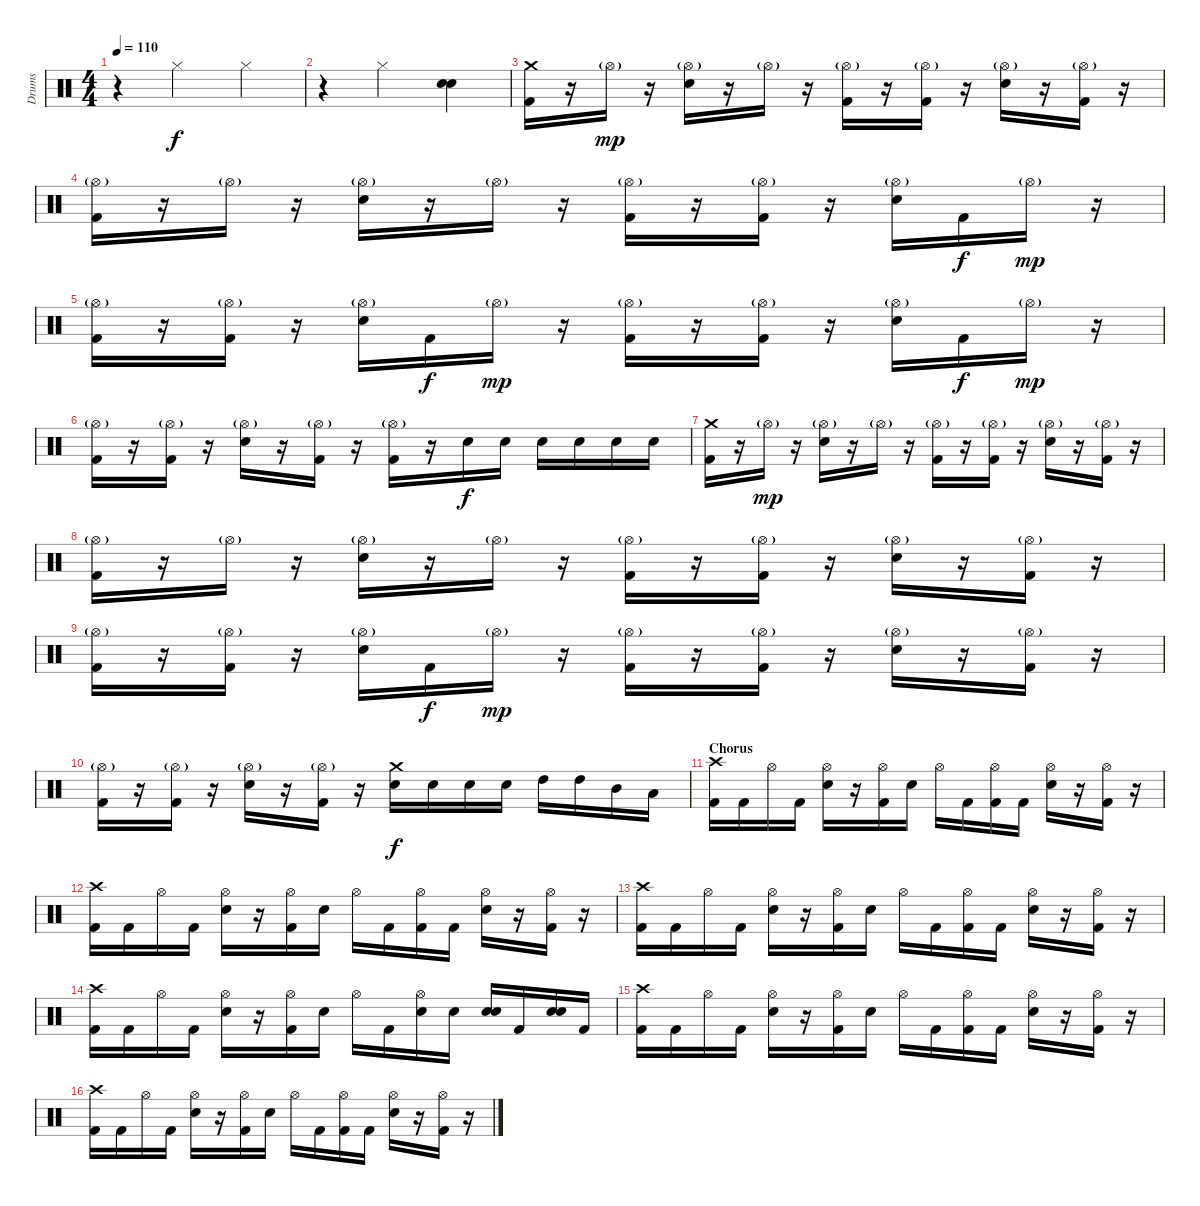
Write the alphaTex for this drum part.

\track ("Drums" "Drums") {instrument percussion}
\staff {score}
\articulation defaults
\ts (4 4)
\tempo 110
\clef neutral
\ks c
r.4{dy f} "Hi-Hat (closed)".2 "Hi-Hat (closed)".4 |
r.4 "Hi-Hat (closed)".2 ("Electric Snare (hit)" "Electric Snare (hit)").4{bd 120} |
("Crash medium (hit)" "Kick (hit) 2").16 r.16 "Hi-Hat (open)"{g}.16{dy mp} r.16 ("Hi-Hat (open)"{g} "Electric Snare (hit)").16 r.16 "Hi-Hat (open)"{g}.16 r.16 ("Hi-Hat (open)"{g} "Kick (hit) 2").16 r.16 ("Hi-Hat (open)"{g} "Kick (hit) 2").16 r.16 ("Hi-Hat (open)"{g} "Electric Snare (hit)").16 r.16 ("Hi-Hat (open)"{g} "Kick (hit) 2").16 r.16 |
("Hi-Hat (open)"{g} "Kick (hit) 2").16 r.16 "Hi-Hat (open)"{g}.16 r.16 ("Hi-Hat (open)"{g} "Electric Snare (hit)").16 r.16 "Hi-Hat (open)"{g}.16 r.16 ("Hi-Hat (open)"{g} "Kick (hit) 2").16 r.16 ("Hi-Hat (open)"{g} "Kick (hit) 2").16 r.16 ("Hi-Hat (open)"{g} "Electric Snare (hit)").16 "Kick (hit) 2".16{dy f} "Hi-Hat (open)"{g}.16{dy mp} r.16 |
("Hi-Hat (open)"{g} "Kick (hit) 2").16 r.16 ("Hi-Hat (open)"{g} "Kick (hit) 2").16 r.16 ("Hi-Hat (open)"{g} "Electric Snare (hit)").16 "Kick (hit) 2".16{dy f} "Hi-Hat (open)"{g}.16{dy mp} r.16 ("Hi-Hat (open)"{g} "Kick (hit) 2").16 r.16 ("Hi-Hat (open)"{g} "Kick (hit) 2").16 r.16 ("Hi-Hat (open)"{g} "Electric Snare (hit)").16 "Kick (hit) 2".16{dy f} "Hi-Hat (open)"{g}.16{dy mp} r.16 |
("Hi-Hat (open)"{g} "Kick (hit) 2").16 r.16 ("Hi-Hat (open)"{g} "Kick (hit) 2").16 r.16 ("Hi-Hat (open)"{g} "Electric Snare (hit)").16 r.16 ("Hi-Hat (open)"{g} "Kick (hit) 2").16 r.16 ("Hi-Hat (open)"{g} "Kick (hit) 2").16 r.16 "Electric Snare (hit)".16{dy f} "Electric Snare (hit)".16 "Electric Snare (hit)".16 "Electric Snare (hit)".16 "Electric Snare (hit)".16 "Electric Snare (hit)".16 |
("Crash medium (hit)" "Kick (hit) 2").16 r.16 "Hi-Hat (open)"{g}.16{dy mp} r.16 ("Hi-Hat (open)"{g} "Electric Snare (hit)").16 r.16 "Hi-Hat (open)"{g}.16 r.16 ("Hi-Hat (open)"{g} "Kick (hit) 2").16 r.16 ("Hi-Hat (open)"{g} "Kick (hit) 2").16 r.16 ("Hi-Hat (open)"{g} "Electric Snare (hit)").16 r.16 ("Hi-Hat (open)"{g} "Kick (hit) 2").16 r.16 |
("Hi-Hat (open)"{g} "Kick (hit) 2").16 r.16 "Hi-Hat (open)"{g}.16 r.16 ("Hi-Hat (open)"{g} "Electric Snare (hit)").16 r.16 "Hi-Hat (open)"{g}.16 r.16 ("Hi-Hat (open)"{g} "Kick (hit) 2").16 r.16 ("Hi-Hat (open)"{g} "Kick (hit) 2").16 r.16 ("Hi-Hat (open)"{g} "Electric Snare (hit)").16 r.16 ("Hi-Hat (open)"{g} "Kick (hit) 2").16 r.16 |
("Hi-Hat (open)"{g} "Kick (hit) 2").16 r.16 ("Hi-Hat (open)"{g} "Kick (hit) 2").16 r.16 ("Hi-Hat (open)"{g} "Electric Snare (hit)").16 "Kick (hit) 2".16{dy f} "Hi-Hat (open)"{g}.16{dy mp} r.16 ("Hi-Hat (open)"{g} "Kick (hit) 2").16 r.16 ("Hi-Hat (open)"{g} "Kick (hit) 2").16 r.16 ("Hi-Hat (open)"{g} "Electric Snare (hit)").16 r.16 ("Hi-Hat (open)"{g} "Kick (hit) 2").16 r.16 |
("Hi-Hat (open)"{g} "Kick (hit) 2").16 r.16 ("Hi-Hat (open)"{g} "Kick (hit) 2").16 r.16 ("Hi-Hat (open)"{g} "Electric Snare (hit)").16 r.16 ("Hi-Hat (open)"{g} "Kick (hit) 2").16 r.16 ("Crash medium (hit)" "Electric Snare (hit)").16{dy f} "Electric Snare (hit)".16 "Electric Snare (hit)".16 "Electric Snare (hit)".16 "High Tom (hit)".16 "High Tom (hit)".16 "Mid Tom (hit)".16 "Low Tom (hit)".16 |
\section ("" "Chorus")
("Crash high (hit)" "Kick (hit) 2").16 "Kick (hit) 2".16 "Hi-Hat (open)".16 "Kick (hit) 2".16 ("Hi-Hat (open)" "Electric Snare (hit)").16 r.16 ("Hi-Hat (open)" "Kick (hit) 2").16 "Electric Snare (hit)".16 "Hi-Hat (open)".16 "Kick (hit) 2".16 ("Hi-Hat (open)" "Kick (hit) 2").16 "Kick (hit) 2".16 ("Hi-Hat (open)" "Electric Snare (hit)").16 r.16 ("Hi-Hat (open)" "Kick (hit) 2").16 r.16 |
("Crash high (hit)" "Kick (hit) 2").16 "Kick (hit) 2".16 "Hi-Hat (open)".16 "Kick (hit) 2".16 ("Hi-Hat (open)" "Electric Snare (hit)").16 r.16 ("Hi-Hat (open)" "Kick (hit) 2").16 "Electric Snare (hit)".16 "Hi-Hat (open)".16 "Kick (hit) 2".16 ("Hi-Hat (open)" "Kick (hit) 2").16 "Kick (hit) 2".16 ("Hi-Hat (open)" "Electric Snare (hit)").16 r.16 ("Hi-Hat (open)" "Kick (hit) 2").16 r.16 |
("Crash high (hit)" "Kick (hit) 2").16 "Kick (hit) 2".16 "Hi-Hat (open)".16 "Kick (hit) 2".16 ("Hi-Hat (open)" "Electric Snare (hit)").16 r.16 ("Hi-Hat (open)" "Kick (hit) 2").16 "Electric Snare (hit)".16 "Hi-Hat (open)".16 "Kick (hit) 2".16 ("Hi-Hat (open)" "Kick (hit) 2").16 "Kick (hit) 2".16 ("Hi-Hat (open)" "Electric Snare (hit)").16 r.16 ("Hi-Hat (open)" "Kick (hit) 2").16 r.16 |
("Crash high (hit)" "Kick (hit) 2").16 "Kick (hit) 2".16 "Hi-Hat (open)".16 "Kick (hit) 2".16 ("Hi-Hat (open)" "Electric Snare (hit)").16 r.16 ("Hi-Hat (open)" "Kick (hit) 2").16 "Electric Snare (hit)".16 "Hi-Hat (open)".16 "Kick (hit) 2".16 ("Hi-Hat (open)" "Electric Snare (hit)").16 "Electric Snare (hit)".16 ("Electric Snare (hit)" "Electric Snare (hit)").16{bd 120} "Kick (hit) 2".16 ("Electric Snare (hit)" "Electric Snare (hit)").16{bd 120} "Kick (hit) 2".16 |
("Crash high (hit)" "Kick (hit) 2").16 "Kick (hit) 2".16 "Hi-Hat (open)".16 "Kick (hit) 2".16 ("Hi-Hat (open)" "Electric Snare (hit)").16 r.16 ("Hi-Hat (open)" "Kick (hit) 2").16 "Electric Snare (hit)".16 "Hi-Hat (open)".16 "Kick (hit) 2".16 ("Hi-Hat (open)" "Kick (hit) 2").16 "Kick (hit) 2".16 ("Hi-Hat (open)" "Electric Snare (hit)").16 r.16 ("Hi-Hat (open)" "Kick (hit) 2").16 r.16 |
("Crash high (hit)" "Kick (hit) 2").16 "Kick (hit) 2".16 "Hi-Hat (open)".16 "Kick (hit) 2".16 ("Hi-Hat (open)" "Electric Snare (hit)").16 r.16 ("Hi-Hat (open)" "Kick (hit) 2").16 "Electric Snare (hit)".16 "Hi-Hat (open)".16 "Kick (hit) 2".16 ("Hi-Hat (open)" "Kick (hit) 2").16 "Kick (hit) 2".16 ("Hi-Hat (open)" "Electric Snare (hit)").16 r.16 ("Hi-Hat (open)" "Kick (hit) 2").16 r.16
